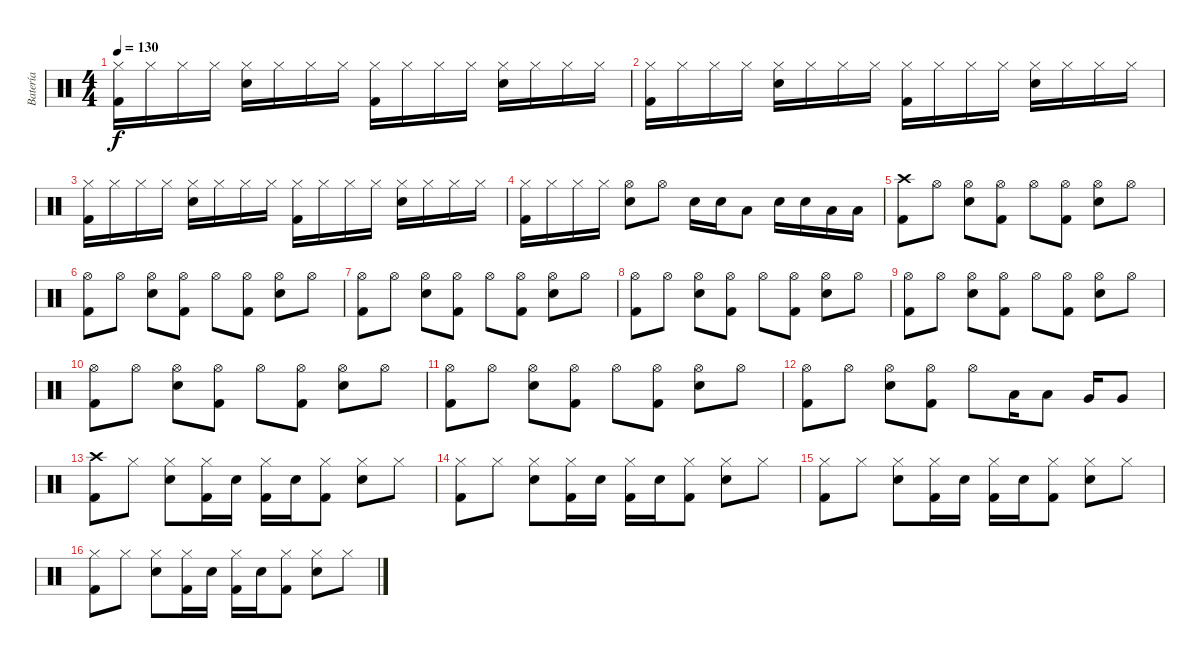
\track ("Batería" "Batería") {instrument percussion}
\staff {score}
\articulation defaults
\ts (4 4)
\tempo 130
\clef neutral
\ks c
("Hi-Hat (closed)" "Kick (hit) 2").16{dy f} "Hi-Hat (closed)".16 "Hi-Hat (closed)".16 "Hi-Hat (closed)".16 ("Hi-Hat (closed)" "Snare (hit) 2").16 "Hi-Hat (closed)".16 "Hi-Hat (closed)".16 "Hi-Hat (closed)".16 ("Hi-Hat (closed)" "Kick (hit) 2").16 "Hi-Hat (closed)".16 "Hi-Hat (closed)".16 "Hi-Hat (closed)".16 ("Hi-Hat (closed)" "Snare (hit) 2").16 "Hi-Hat (closed)".16 "Hi-Hat (closed)".16 "Hi-Hat (closed)".16 |
("Hi-Hat (closed)" "Kick (hit) 2").16 "Hi-Hat (closed)".16 "Hi-Hat (closed)".16 "Hi-Hat (closed)".16 ("Hi-Hat (closed)" "Snare (hit) 2").16 "Hi-Hat (closed)".16 "Hi-Hat (closed)".16 "Hi-Hat (closed)".16 ("Hi-Hat (closed)" "Kick (hit) 2").16 "Hi-Hat (closed)".16 "Hi-Hat (closed)".16 "Hi-Hat (closed)".16 ("Hi-Hat (closed)" "Snare (hit) 2").16 "Hi-Hat (closed)".16 "Hi-Hat (closed)".16 "Hi-Hat (closed)".16 |
("Hi-Hat (closed)" "Kick (hit) 2").16 "Hi-Hat (closed)".16 "Hi-Hat (closed)".16 "Hi-Hat (closed)".16 ("Hi-Hat (closed)" "Snare (hit) 2").16 "Hi-Hat (closed)".16 "Hi-Hat (closed)".16 "Hi-Hat (closed)".16 ("Hi-Hat (closed)" "Kick (hit) 2").16 "Hi-Hat (closed)".16 "Hi-Hat (closed)".16 "Hi-Hat (closed)".16 ("Hi-Hat (closed)" "Snare (hit) 2").16 "Hi-Hat (closed)".16 "Hi-Hat (closed)".16 "Hi-Hat (closed)".16 |
("Hi-Hat (closed)" "Kick (hit) 2").16 "Hi-Hat (closed)".16 "Hi-Hat (closed)".16 "Hi-Hat (closed)".16 ("Hi-Hat (open)" "Snare (hit) 2").8 "Hi-Hat (open)".8 "Snare (hit) 2".16 "Snare (hit) 2".16 "Low Tom (hit)".8 "Snare (hit) 2".16 "Snare (hit) 2".16 "Low Tom (hit)".16 "Low Tom (hit)".16 |
("Crash high (hit)" "Kick (hit) 2").8 "Hi-Hat (open)".8 ("Hi-Hat (open)" "Snare (hit) 2").8 ("Hi-Hat (open)" "Kick (hit) 2").8 "Hi-Hat (open)".8 ("Hi-Hat (open)" "Kick (hit) 2").8 ("Hi-Hat (open)" "Snare (hit) 2").8 "Hi-Hat (open)".8 |
("Hi-Hat (open)" "Kick (hit) 2").8 "Hi-Hat (open)".8 ("Hi-Hat (open)" "Snare (hit) 2").8 ("Hi-Hat (open)" "Kick (hit) 2").8 "Hi-Hat (open)".8 ("Hi-Hat (open)" "Kick (hit) 2").8 ("Hi-Hat (open)" "Snare (hit) 2").8 "Hi-Hat (open)".8 |
("Hi-Hat (open)" "Kick (hit) 2").8 "Hi-Hat (open)".8 ("Hi-Hat (open)" "Snare (hit) 2").8 ("Hi-Hat (open)" "Kick (hit) 2").8 "Hi-Hat (open)".8 ("Hi-Hat (open)" "Kick (hit) 2").8 ("Hi-Hat (open)" "Snare (hit) 2").8 "Hi-Hat (open)".8 |
("Hi-Hat (open)" "Kick (hit) 2").8 "Hi-Hat (open)".8 ("Hi-Hat (open)" "Snare (hit) 2").8 ("Hi-Hat (open)" "Kick (hit) 2").8 "Hi-Hat (open)".8 ("Hi-Hat (open)" "Kick (hit) 2").8 ("Hi-Hat (open)" "Snare (hit) 2").8 "Hi-Hat (open)".8 |
("Hi-Hat (open)" "Kick (hit) 2").8 "Hi-Hat (open)".8 ("Hi-Hat (open)" "Snare (hit) 2").8 ("Hi-Hat (open)" "Kick (hit) 2").8 "Hi-Hat (open)".8 ("Hi-Hat (open)" "Kick (hit) 2").8 ("Hi-Hat (open)" "Snare (hit) 2").8 "Hi-Hat (open)".8 |
("Hi-Hat (open)" "Kick (hit) 2").8 "Hi-Hat (open)".8 ("Hi-Hat (open)" "Snare (hit) 2").8 ("Hi-Hat (open)" "Kick (hit) 2").8 "Hi-Hat (open)".8 ("Hi-Hat (open)" "Kick (hit) 2").8 ("Hi-Hat (open)" "Snare (hit) 2").8 "Hi-Hat (open)".8 |
("Hi-Hat (open)" "Kick (hit) 2").8 "Hi-Hat (open)".8 ("Hi-Hat (open)" "Snare (hit) 2").8 ("Hi-Hat (open)" "Kick (hit) 2").8 "Hi-Hat (open)".8 ("Hi-Hat (open)" "Kick (hit) 2").8 ("Hi-Hat (open)" "Snare (hit) 2").8 "Hi-Hat (open)".8 |
("Hi-Hat (open)" "Kick (hit) 2").8 "Hi-Hat (open)".8 ("Hi-Hat (open)" "Snare (hit) 2").8 ("Hi-Hat (open)" "Kick (hit) 2").8 "Hi-Hat (open)".8 "Low Tom (hit)".16 "Low Tom (hit)".8 "Very Low Tom (hit)".16 "Very Low Tom (hit)".8 |
("Crash high (hit)" "Kick (hit) 2").8 "Hi-Hat (closed)".8 ("Hi-Hat (closed)" "Snare (hit) 2").8 ("Hi-Hat (closed)" "Kick (hit) 2").16 "Snare (hit) 2".16 ("Hi-Hat (closed)" "Kick (hit) 2").16 "Snare (hit) 2".16 ("Hi-Hat (closed)" "Kick (hit) 2").8 ("Hi-Hat (closed)" "Snare (hit) 2").8 "Hi-Hat (closed)".8 |
("Hi-Hat (closed)" "Kick (hit) 2").8 "Hi-Hat (closed)".8 ("Hi-Hat (closed)" "Snare (hit) 2").8 ("Hi-Hat (closed)" "Kick (hit) 2").16 "Snare (hit) 2".16 ("Hi-Hat (closed)" "Kick (hit) 2").16 "Snare (hit) 2".16 ("Hi-Hat (closed)" "Kick (hit) 2").8 ("Hi-Hat (closed)" "Snare (hit) 2").8 "Hi-Hat (closed)".8 |
("Hi-Hat (closed)" "Kick (hit) 2").8 "Hi-Hat (closed)".8 ("Hi-Hat (closed)" "Snare (hit) 2").8 ("Hi-Hat (closed)" "Kick (hit) 2").16 "Snare (hit) 2".16 ("Hi-Hat (closed)" "Kick (hit) 2").16 "Snare (hit) 2".16 ("Hi-Hat (closed)" "Kick (hit) 2").8 ("Hi-Hat (closed)" "Snare (hit) 2").8 "Hi-Hat (closed)".8 |
("Hi-Hat (closed)" "Kick (hit) 2").8 "Hi-Hat (closed)".8 ("Hi-Hat (closed)" "Snare (hit) 2").8 ("Hi-Hat (closed)" "Kick (hit) 2").16 "Snare (hit) 2".16 ("Hi-Hat (closed)" "Kick (hit) 2").16 "Snare (hit) 2".16 ("Hi-Hat (closed)" "Kick (hit) 2").8 ("Hi-Hat (closed)" "Snare (hit) 2").8 "Hi-Hat (closed)".8
